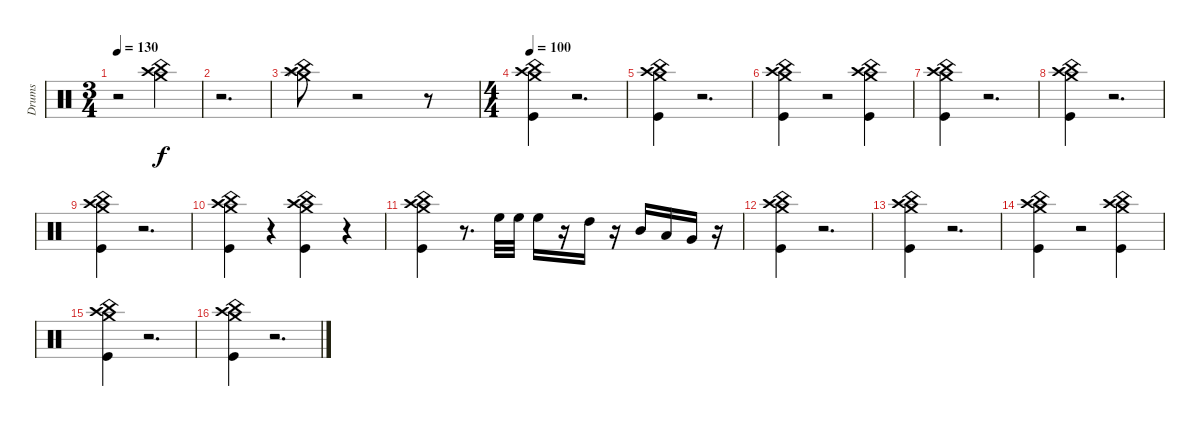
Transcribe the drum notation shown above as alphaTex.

\track ("Drums" "Drums") {instrument percussion}
\staff {score}
\articulation defaults
\ts (3 4)
\tempo 130
\clef neutral
\ks c
r.2{dy f} ("Crash medium (hit)" "China (hit)" "Crash high (hit)").4 |
r.2{d} |
("China (hit)" "Splash (hit)" "Crash medium (hit)" "Crash high (hit)").8 r.2 r.8 |
\ts (4 4)
\tempo 100
("China (hit)" "Crash high (hit)" "Crash medium (hit)" "Kick (hit)").4 r.2{d} |
("China (hit)" "Crash medium (hit)" "Crash high (hit)" "Kick (hit)").4 r.2{d} |
("China (hit)" "Crash medium (hit)" "Crash high (hit)" "Kick (hit)").4 r.2 ("China (hit)" "Crash high (hit)" "Crash medium (hit)" "Kick (hit)").4 |
("Crash medium (hit)" "Crash high (hit)" "China (hit)" "Kick (hit)").4 r.2{d} |
("Crash medium (hit)" "China (hit)" "Crash high (hit)" "Kick (hit)").4 r.2{d} |
("Crash medium (hit)" "China (hit)" "Crash high (hit)" "Kick (hit)").4 r.2{d} |
("Crash high (hit)" "China (hit)" "Crash medium (hit)" "Kick (hit)").4 r.4 ("Crash high (hit)" "China (hit)" "Crash medium (hit)" "Kick (hit)").4 r.4 |
("Crash high (hit)" "China (hit)" "Crash medium (hit)" "Kick (hit)").4 r.8{d} "High Floor Tom (hit)".32 "High Floor Tom (hit)".32 "High Floor Tom (hit)".16 r.16 "High Tom (hit)".16 r.16 "Mid Tom (hit)".16 "Low Tom (hit)".16 "Very Low Tom (hit)".16 r.16 |
("Crash medium (hit)" "China (hit)" "Crash high (hit)" "Kick (hit)").4 r.2{d} |
("Kick (hit)" "Crash high (hit)" "China (hit)" "Crash medium (hit)").4 r.2{d} |
("Crash medium (hit)" "China (hit)" "Crash high (hit)" "Kick (hit)").4 r.2 ("Crash medium (hit)" "Crash high (hit)" "China (hit)" "Kick (hit)").4 |
("Crash medium (hit)" "China (hit)" "Crash high (hit)" "Kick (hit)").4 r.2{d} |
("Crash medium (hit)" "China (hit)" "Crash high (hit)" "Kick (hit)").4 r.2{d}
